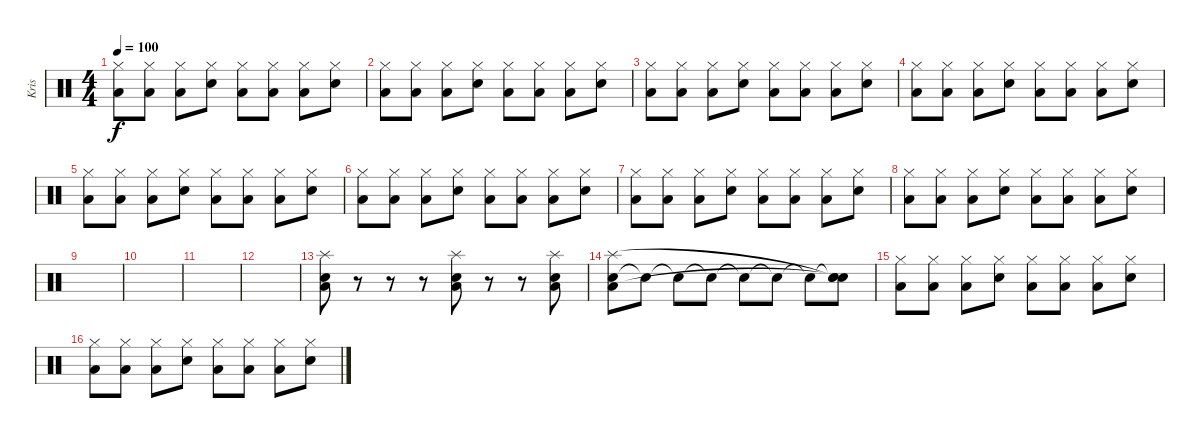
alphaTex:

\track ("Kris" "Kris") {instrument percussion}
\staff {score}
\articulation defaults
\ts (4 4)
\tempo 100
\clef neutral
\ks c
("Low Tom (hit)" "Hi-Hat (closed)").8{dy f} ("Low Tom (hit)" "Hi-Hat (closed)").8 ("Hi-Hat (closed)" "Low Tom (hit)").8 ("Hi-Hat (closed)" "Electric Snare (hit)").8 ("Hi-Hat (closed)" "Low Tom (hit)").8 ("Hi-Hat (closed)" "Low Tom (hit)").8 ("Hi-Hat (closed)" "Low Tom (hit)").8 ("Hi-Hat (closed)" "Electric Snare (hit)").8 |
("Low Tom (hit)" "Hi-Hat (closed)").8 ("Low Tom (hit)" "Hi-Hat (closed)").8 ("Hi-Hat (closed)" "Low Tom (hit)").8 ("Hi-Hat (closed)" "Electric Snare (hit)").8 ("Hi-Hat (closed)" "Low Tom (hit)").8 ("Hi-Hat (closed)" "Low Tom (hit)").8 ("Hi-Hat (closed)" "Low Tom (hit)").8 ("Hi-Hat (closed)" "Electric Snare (hit)").8 |
("Low Tom (hit)" "Hi-Hat (closed)").8 ("Low Tom (hit)" "Hi-Hat (closed)").8 ("Hi-Hat (closed)" "Low Tom (hit)").8 ("Hi-Hat (closed)" "Electric Snare (hit)").8 ("Hi-Hat (closed)" "Low Tom (hit)").8 ("Hi-Hat (closed)" "Low Tom (hit)").8 ("Hi-Hat (closed)" "Low Tom (hit)").8 ("Hi-Hat (closed)" "Electric Snare (hit)").8 |
("Low Tom (hit)" "Hi-Hat (closed)").8 ("Low Tom (hit)" "Hi-Hat (closed)").8 ("Hi-Hat (closed)" "Low Tom (hit)").8 ("Hi-Hat (closed)" "Electric Snare (hit)").8 ("Hi-Hat (closed)" "Low Tom (hit)").8 ("Hi-Hat (closed)" "Low Tom (hit)").8 ("Hi-Hat (closed)" "Low Tom (hit)").8 ("Hi-Hat (closed)" "Electric Snare (hit)").8 |
("Low Tom (hit)" "Hi-Hat (closed)").8 ("Low Tom (hit)" "Hi-Hat (closed)").8 ("Hi-Hat (closed)" "Low Tom (hit)").8 ("Hi-Hat (closed)" "Electric Snare (hit)").8 ("Hi-Hat (closed)" "Low Tom (hit)").8 ("Hi-Hat (closed)" "Low Tom (hit)").8 ("Hi-Hat (closed)" "Low Tom (hit)").8 ("Hi-Hat (closed)" "Electric Snare (hit)").8 |
("Low Tom (hit)" "Hi-Hat (closed)").8 ("Low Tom (hit)" "Hi-Hat (closed)").8 ("Hi-Hat (closed)" "Low Tom (hit)").8 ("Hi-Hat (closed)" "Electric Snare (hit)").8 ("Hi-Hat (closed)" "Low Tom (hit)").8 ("Hi-Hat (closed)" "Low Tom (hit)").8 ("Hi-Hat (closed)" "Low Tom (hit)").8 ("Hi-Hat (closed)" "Electric Snare (hit)").8 |
("Low Tom (hit)" "Hi-Hat (closed)").8 ("Low Tom (hit)" "Hi-Hat (closed)").8 ("Hi-Hat (closed)" "Low Tom (hit)").8 ("Hi-Hat (closed)" "Electric Snare (hit)").8 ("Hi-Hat (closed)" "Low Tom (hit)").8 ("Hi-Hat (closed)" "Low Tom (hit)").8 ("Hi-Hat (closed)" "Low Tom (hit)").8 ("Hi-Hat (closed)" "Electric Snare (hit)").8 |
("Low Tom (hit)" "Hi-Hat (closed)").8 ("Low Tom (hit)" "Hi-Hat (closed)").8 ("Hi-Hat (closed)" "Low Tom (hit)").8 ("Hi-Hat (closed)" "Electric Snare (hit)").8 ("Hi-Hat (closed)" "Low Tom (hit)").8 ("Hi-Hat (closed)" "Low Tom (hit)").8 ("Hi-Hat (closed)" "Low Tom (hit)").8 ("Hi-Hat (closed)" "Electric Snare (hit)").8 |
|
|
|
|
("Electric Snare (hit)" "Splash (hit)" "Low Tom (hit)").8 r.8 r.8 r.8 ("Electric Snare (hit)" "Splash (hit)" "Low Tom (hit)").8 r.8 r.8 ("Electric Snare (hit)" "Splash (hit)" "Low Tom (hit)").8 |
("Electric Snare (hit)" "Splash (hit)" "Low Tom (hit)").8 "Snare (hit)"{t}.8 "Snare (hit)"{t}.8 "Snare (hit)"{t}.8 "Snare (hit)"{t}.8 "Snare (hit)"{t}.8 "Snare (hit)"{t}.8 ("Snare (hit)"{t} "Snare (hit)"{t} "Snare (hit)"{t}).8 |
("Low Tom (hit)" "Hi-Hat (closed)").8 ("Low Tom (hit)" "Hi-Hat (closed)").8 ("Hi-Hat (closed)" "Low Tom (hit)").8 ("Hi-Hat (closed)" "Electric Snare (hit)").8 ("Hi-Hat (closed)" "Low Tom (hit)").8 ("Hi-Hat (closed)" "Low Tom (hit)").8 ("Hi-Hat (closed)" "Low Tom (hit)").8 ("Hi-Hat (closed)" "Electric Snare (hit)").8 |
("Low Tom (hit)" "Hi-Hat (closed)").8 ("Low Tom (hit)" "Hi-Hat (closed)").8 ("Hi-Hat (closed)" "Low Tom (hit)").8 ("Hi-Hat (closed)" "Electric Snare (hit)").8 ("Hi-Hat (closed)" "Low Tom (hit)").8 ("Hi-Hat (closed)" "Low Tom (hit)").8 ("Hi-Hat (closed)" "Low Tom (hit)").8 ("Hi-Hat (closed)" "Electric Snare (hit)").8
